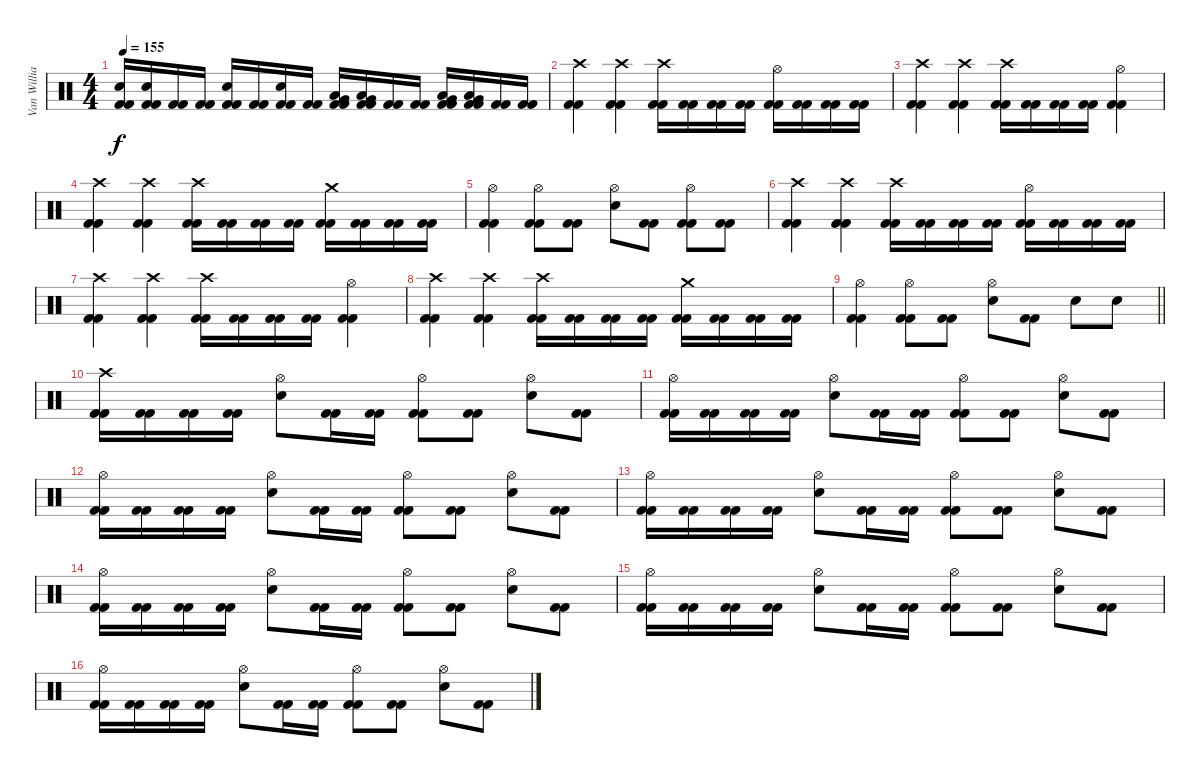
\track ("Van Williams" "Van Willia") {instrument percussion}
\staff {score}
\articulation defaults
\ts (4 4)
\tempo 155
\clef neutral
\ks c
("Electric Snare (hit)" "Kick (hit) 2" "Kick (hit) 2").16{dy f} ("Electric Snare (hit)" "Kick (hit) 2" "Kick (hit) 2").16 ("Kick (hit) 2" "Kick (hit) 2").16 ("Kick (hit) 2" "Kick (hit) 2").16 ("Electric Snare (hit)" "Kick (hit) 2" "Kick (hit) 2").16 ("Kick (hit) 2" "Kick (hit) 2").16 ("Electric Snare (hit)" "Kick (hit) 2" "Kick (hit) 2").16 ("Kick (hit) 2" "Kick (hit) 2").16 ("Low Tom (hit)" "Very Low Tom (hit)" "Kick (hit) 2" "Kick (hit) 2").16 ("Low Tom (hit)" "Very Low Tom (hit)" "Kick (hit) 2" "Kick (hit) 2").16 ("Kick (hit) 2" "Kick (hit) 2").16 ("Kick (hit) 2" "Kick (hit) 2").16 ("Very Low Tom (hit)" "Low Floor Tom (hit)" "Kick (hit) 2" "Kick (hit) 2").16 ("Very Low Tom (hit)" "Low Floor Tom (hit)" "Kick (hit) 2" "Kick (hit) 2").16 ("Kick (hit) 2" "Kick (hit) 2").16 ("Kick (hit) 2" "Kick (hit) 2").16 |
("Crash high (hit)" "Kick (hit) 2" "Kick (hit) 2").4 ("Crash high (hit)" "Kick (hit) 2" "Kick (hit) 2").4 ("Crash high (hit)" "Kick (hit) 2" "Kick (hit) 2").16 ("Kick (hit) 2" "Kick (hit) 2").16 ("Kick (hit) 2" "Kick (hit) 2").16 ("Kick (hit) 2" "Kick (hit) 2").16 ("Hi-Hat (open)" "Kick (hit) 2" "Kick (hit) 2").16 ("Kick (hit) 2" "Kick (hit) 2").16 ("Kick (hit) 2" "Kick (hit) 2").16 ("Kick (hit) 2" "Kick (hit) 2").16 |
("Crash high (hit)" "Kick (hit) 2" "Kick (hit) 2").4 ("Crash high (hit)" "Kick (hit) 2" "Kick (hit) 2").4 ("Crash high (hit)" "Kick (hit) 2" "Kick (hit) 2").16 ("Kick (hit) 2" "Kick (hit) 2").16 ("Kick (hit) 2" "Kick (hit) 2").16 ("Kick (hit) 2" "Kick (hit) 2").16 ("Hi-Hat (open)" "Kick (hit) 2" "Kick (hit) 2").4 |
("Crash high (hit)" "Kick (hit) 2" "Kick (hit) 2").4 ("Crash high (hit)" "Kick (hit) 2" "Kick (hit) 2").4 ("Crash high (hit)" "Kick (hit) 2" "Kick (hit) 2").16 ("Kick (hit) 2" "Kick (hit) 2").16 ("Kick (hit) 2" "Kick (hit) 2").16 ("Kick (hit) 2" "Kick (hit) 2").16 ("Crash medium (hit)" "Kick (hit) 2" "Kick (hit) 2").16 ("Kick (hit) 2" "Kick (hit) 2").16 ("Kick (hit) 2" "Kick (hit) 2").16 ("Kick (hit) 2" "Kick (hit) 2").16 |
("Hi-Hat (open)" "Kick (hit) 2" "Kick (hit) 2").4 ("Hi-Hat (open)" "Kick (hit) 2" "Kick (hit) 2").8 ("Kick (hit) 2" "Kick (hit) 2").8 ("Hi-Hat (open)" "Electric Snare (hit)").8 ("Kick (hit) 2" "Kick (hit) 2").8 ("Hi-Hat (open)" "Kick (hit) 2" "Kick (hit) 2").8 ("Kick (hit) 2" "Kick (hit) 2").8 |
("Crash high (hit)" "Kick (hit) 2" "Kick (hit) 2").4 ("Crash high (hit)" "Kick (hit) 2" "Kick (hit) 2").4 ("Crash high (hit)" "Kick (hit) 2" "Kick (hit) 2").16 ("Kick (hit) 2" "Kick (hit) 2").16 ("Kick (hit) 2" "Kick (hit) 2").16 ("Kick (hit) 2" "Kick (hit) 2").16 ("Hi-Hat (open)" "Kick (hit) 2" "Kick (hit) 2").16 ("Kick (hit) 2" "Kick (hit) 2").16 ("Kick (hit) 2" "Kick (hit) 2").16 ("Kick (hit) 2" "Kick (hit) 2").16 |
("Crash high (hit)" "Kick (hit) 2" "Kick (hit) 2").4 ("Crash high (hit)" "Kick (hit) 2" "Kick (hit) 2").4 ("Crash high (hit)" "Kick (hit) 2" "Kick (hit) 2").16 ("Kick (hit) 2" "Kick (hit) 2").16 ("Kick (hit) 2" "Kick (hit) 2").16 ("Kick (hit) 2" "Kick (hit) 2").16 ("Hi-Hat (open)" "Kick (hit) 2" "Kick (hit) 2").4 |
("Crash high (hit)" "Kick (hit) 2" "Kick (hit) 2").4 ("Crash high (hit)" "Kick (hit) 2" "Kick (hit) 2").4 ("Crash high (hit)" "Kick (hit) 2" "Kick (hit) 2").16 ("Kick (hit) 2" "Kick (hit) 2").16 ("Kick (hit) 2" "Kick (hit) 2").16 ("Kick (hit) 2" "Kick (hit) 2").16 ("Crash medium (hit)" "Kick (hit) 2" "Kick (hit) 2").16 ("Kick (hit) 2" "Kick (hit) 2").16 ("Kick (hit) 2" "Kick (hit) 2").16 ("Kick (hit) 2" "Kick (hit) 2").16 |
\barLineRight lightlight
("Hi-Hat (open)" "Kick (hit) 2" "Kick (hit) 2").4 ("Hi-Hat (open)" "Kick (hit) 2" "Kick (hit) 2").8 ("Kick (hit) 2" "Kick (hit) 2").8 ("Hi-Hat (open)" "Electric Snare (hit)").8 ("Kick (hit) 2" "Kick (hit) 2").8 "Electric Snare (hit)".8 "Electric Snare (hit)".8 |
("Crash high (hit)" "Kick (hit) 2" "Kick (hit) 2").16 ("Kick (hit) 2" "Kick (hit) 2").16 ("Kick (hit) 2" "Kick (hit) 2").16 ("Kick (hit) 2" "Kick (hit) 2").16 ("Hi-Hat (open)" "Electric Snare (hit)").8 ("Kick (hit) 2" "Kick (hit) 2").16 ("Kick (hit) 2" "Kick (hit) 2").16 ("Hi-Hat (open)" "Kick (hit) 2" "Kick (hit) 2").8 ("Kick (hit) 2" "Kick (hit) 2").8 ("Hi-Hat (open)" "Electric Snare (hit)").8 ("Kick (hit) 2" "Kick (hit) 2").8 |
("Hi-Hat (open)" "Kick (hit) 2" "Kick (hit) 2").16 ("Kick (hit) 2" "Kick (hit) 2").16 ("Kick (hit) 2" "Kick (hit) 2").16 ("Kick (hit) 2" "Kick (hit) 2").16 ("Hi-Hat (open)" "Electric Snare (hit)").8 ("Kick (hit) 2" "Kick (hit) 2").16 ("Kick (hit) 2" "Kick (hit) 2").16 ("Hi-Hat (open)" "Kick (hit) 2" "Kick (hit) 2").8 ("Kick (hit) 2" "Kick (hit) 2").8 ("Hi-Hat (open)" "Electric Snare (hit)").8 ("Kick (hit) 2" "Kick (hit) 2").8 |
("Hi-Hat (open)" "Kick (hit) 2" "Kick (hit) 2").16 ("Kick (hit) 2" "Kick (hit) 2").16 ("Kick (hit) 2" "Kick (hit) 2").16 ("Kick (hit) 2" "Kick (hit) 2").16 ("Hi-Hat (open)" "Electric Snare (hit)").8 ("Kick (hit) 2" "Kick (hit) 2").16 ("Kick (hit) 2" "Kick (hit) 2").16 ("Hi-Hat (open)" "Kick (hit) 2" "Kick (hit) 2").8 ("Kick (hit) 2" "Kick (hit) 2").8 ("Hi-Hat (open)" "Electric Snare (hit)").8 ("Kick (hit) 2" "Kick (hit) 2").8 |
("Hi-Hat (open)" "Kick (hit) 2" "Kick (hit) 2").16 ("Kick (hit) 2" "Kick (hit) 2").16 ("Kick (hit) 2" "Kick (hit) 2").16 ("Kick (hit) 2" "Kick (hit) 2").16 ("Hi-Hat (open)" "Electric Snare (hit)").8 ("Kick (hit) 2" "Kick (hit) 2").16 ("Kick (hit) 2" "Kick (hit) 2").16 ("Hi-Hat (open)" "Kick (hit) 2" "Kick (hit) 2").8 ("Kick (hit) 2" "Kick (hit) 2").8 ("Hi-Hat (open)" "Electric Snare (hit)").8 ("Kick (hit) 2" "Kick (hit) 2").8 |
("Hi-Hat (open)" "Kick (hit) 2" "Kick (hit) 2").16 ("Kick (hit) 2" "Kick (hit) 2").16 ("Kick (hit) 2" "Kick (hit) 2").16 ("Kick (hit) 2" "Kick (hit) 2").16 ("Hi-Hat (open)" "Electric Snare (hit)").8 ("Kick (hit) 2" "Kick (hit) 2").16 ("Kick (hit) 2" "Kick (hit) 2").16 ("Hi-Hat (open)" "Kick (hit) 2" "Kick (hit) 2").8 ("Kick (hit) 2" "Kick (hit) 2").8 ("Hi-Hat (open)" "Electric Snare (hit)").8 ("Kick (hit) 2" "Kick (hit) 2").8 |
("Hi-Hat (open)" "Kick (hit) 2" "Kick (hit) 2").16 ("Kick (hit) 2" "Kick (hit) 2").16 ("Kick (hit) 2" "Kick (hit) 2").16 ("Kick (hit) 2" "Kick (hit) 2").16 ("Hi-Hat (open)" "Electric Snare (hit)").8 ("Kick (hit) 2" "Kick (hit) 2").16 ("Kick (hit) 2" "Kick (hit) 2").16 ("Hi-Hat (open)" "Kick (hit) 2" "Kick (hit) 2").8 ("Kick (hit) 2" "Kick (hit) 2").8 ("Hi-Hat (open)" "Electric Snare (hit)").8 ("Kick (hit) 2" "Kick (hit) 2").8 |
("Hi-Hat (open)" "Kick (hit) 2" "Kick (hit) 2").16 ("Kick (hit) 2" "Kick (hit) 2").16 ("Kick (hit) 2" "Kick (hit) 2").16 ("Kick (hit) 2" "Kick (hit) 2").16 ("Hi-Hat (open)" "Electric Snare (hit)").8 ("Kick (hit) 2" "Kick (hit) 2").16 ("Kick (hit) 2" "Kick (hit) 2").16 ("Hi-Hat (open)" "Kick (hit) 2" "Kick (hit) 2").8 ("Kick (hit) 2" "Kick (hit) 2").8 ("Hi-Hat (open)" "Electric Snare (hit)").8 ("Kick (hit) 2" "Kick (hit) 2").8
